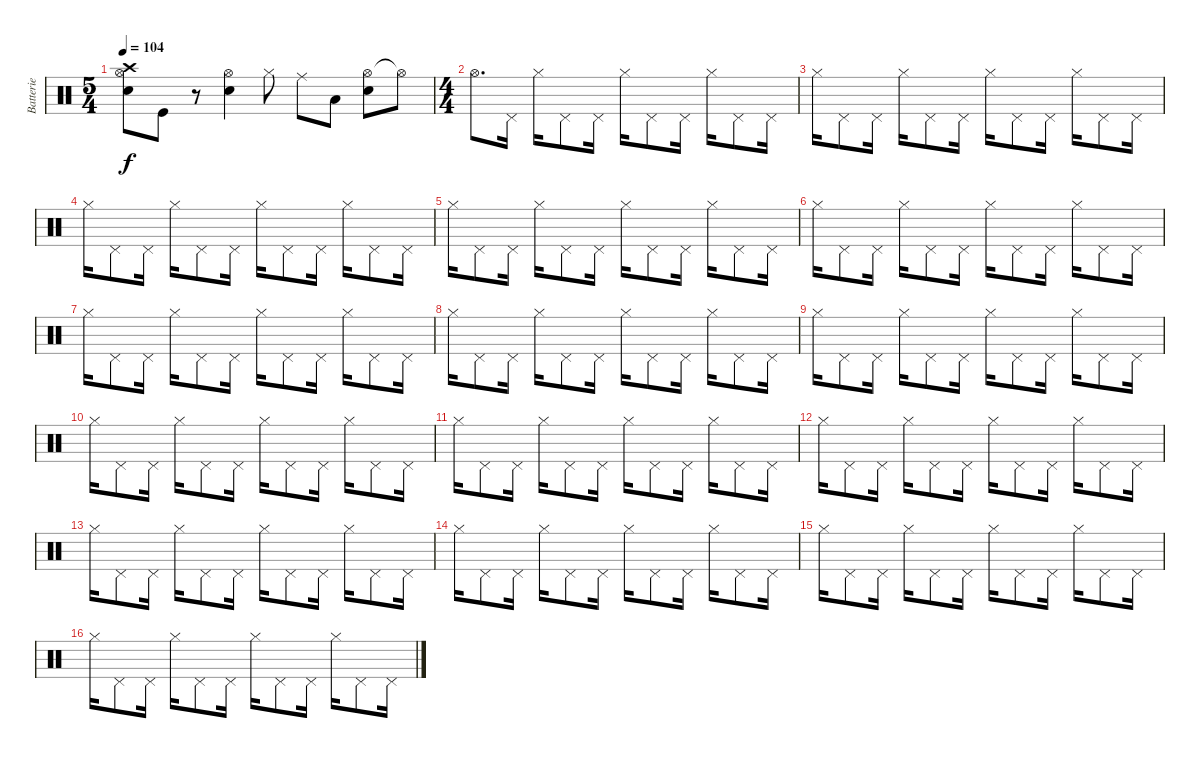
\track ("Batterie" "Batterie") {instrument percussion}
\staff {score}
\articulation defaults
\ts (5 4)
\tempo 104
\clef neutral
\ks c
("Hi-Hat (open)" "Crash high (hit)" "Electric Snare (hit)").8{dy f} "Kick (hit)".8 r.8 ("Hi-Hat (open)" "Electric Snare (hit)").4 "Hi-Hat (closed)".8 "Ride (middle)".8 "Low Tom (hit)".8 ("Hi-Hat (open)" "Electric Snare (hit)").8 "Hi-Hat (open)"{t}.8 |
\ts (4 4)
"Hi-Hat (open)".8{d} "Pedal Hi-Hat (hit)".16 "Hi-Hat (closed)".16 "Pedal Hi-Hat (hit)".8 "Pedal Hi-Hat (hit)".16 "Hi-Hat (closed)".16 "Pedal Hi-Hat (hit)".8 "Pedal Hi-Hat (hit)".16 "Hi-Hat (closed)".16 "Pedal Hi-Hat (hit)".8 "Pedal Hi-Hat (hit)".16 |
"Hi-Hat (closed)".16 "Pedal Hi-Hat (hit)".8 "Pedal Hi-Hat (hit)".16 "Hi-Hat (closed)".16 "Pedal Hi-Hat (hit)".8 "Pedal Hi-Hat (hit)".16 "Hi-Hat (closed)".16 "Pedal Hi-Hat (hit)".8 "Pedal Hi-Hat (hit)".16 "Hi-Hat (closed)".16 "Pedal Hi-Hat (hit)".8 "Pedal Hi-Hat (hit)".16 |
"Hi-Hat (closed)".16 "Pedal Hi-Hat (hit)".8 "Pedal Hi-Hat (hit)".16 "Hi-Hat (closed)".16 "Pedal Hi-Hat (hit)".8 "Pedal Hi-Hat (hit)".16 "Hi-Hat (closed)".16 "Pedal Hi-Hat (hit)".8 "Pedal Hi-Hat (hit)".16 "Hi-Hat (closed)".16 "Pedal Hi-Hat (hit)".8 "Pedal Hi-Hat (hit)".16 |
"Hi-Hat (closed)".16 "Pedal Hi-Hat (hit)".8 "Pedal Hi-Hat (hit)".16 "Hi-Hat (closed)".16 "Pedal Hi-Hat (hit)".8 "Pedal Hi-Hat (hit)".16 "Hi-Hat (closed)".16 "Pedal Hi-Hat (hit)".8 "Pedal Hi-Hat (hit)".16 "Hi-Hat (closed)".16 "Pedal Hi-Hat (hit)".8 "Pedal Hi-Hat (hit)".16 |
"Hi-Hat (closed)".16 "Pedal Hi-Hat (hit)".8 "Pedal Hi-Hat (hit)".16 "Hi-Hat (closed)".16 "Pedal Hi-Hat (hit)".8 "Pedal Hi-Hat (hit)".16 "Hi-Hat (closed)".16 "Pedal Hi-Hat (hit)".8 "Pedal Hi-Hat (hit)".16 "Hi-Hat (closed)".16 "Pedal Hi-Hat (hit)".8 "Pedal Hi-Hat (hit)".16 |
"Hi-Hat (closed)".16 "Pedal Hi-Hat (hit)".8 "Pedal Hi-Hat (hit)".16 "Hi-Hat (closed)".16 "Pedal Hi-Hat (hit)".8 "Pedal Hi-Hat (hit)".16 "Hi-Hat (closed)".16 "Pedal Hi-Hat (hit)".8 "Pedal Hi-Hat (hit)".16 "Hi-Hat (closed)".16 "Pedal Hi-Hat (hit)".8 "Pedal Hi-Hat (hit)".16 |
"Hi-Hat (closed)".16 "Pedal Hi-Hat (hit)".8 "Pedal Hi-Hat (hit)".16 "Hi-Hat (closed)".16 "Pedal Hi-Hat (hit)".8 "Pedal Hi-Hat (hit)".16 "Hi-Hat (closed)".16 "Pedal Hi-Hat (hit)".8 "Pedal Hi-Hat (hit)".16 "Hi-Hat (closed)".16 "Pedal Hi-Hat (hit)".8 "Pedal Hi-Hat (hit)".16 |
"Hi-Hat (closed)".16 "Pedal Hi-Hat (hit)".8 "Pedal Hi-Hat (hit)".16 "Hi-Hat (closed)".16 "Pedal Hi-Hat (hit)".8 "Pedal Hi-Hat (hit)".16 "Hi-Hat (closed)".16 "Pedal Hi-Hat (hit)".8 "Pedal Hi-Hat (hit)".16 "Hi-Hat (closed)".16 "Pedal Hi-Hat (hit)".8 "Pedal Hi-Hat (hit)".16 |
"Hi-Hat (closed)".16 "Pedal Hi-Hat (hit)".8 "Pedal Hi-Hat (hit)".16 "Hi-Hat (closed)".16 "Pedal Hi-Hat (hit)".8 "Pedal Hi-Hat (hit)".16 "Hi-Hat (closed)".16 "Pedal Hi-Hat (hit)".8 "Pedal Hi-Hat (hit)".16 "Hi-Hat (closed)".16 "Pedal Hi-Hat (hit)".8 "Pedal Hi-Hat (hit)".16 |
"Hi-Hat (closed)".16 "Pedal Hi-Hat (hit)".8 "Pedal Hi-Hat (hit)".16 "Hi-Hat (closed)".16 "Pedal Hi-Hat (hit)".8 "Pedal Hi-Hat (hit)".16 "Hi-Hat (closed)".16 "Pedal Hi-Hat (hit)".8 "Pedal Hi-Hat (hit)".16 "Hi-Hat (closed)".16 "Pedal Hi-Hat (hit)".8 "Pedal Hi-Hat (hit)".16 |
"Hi-Hat (closed)".16 "Pedal Hi-Hat (hit)".8 "Pedal Hi-Hat (hit)".16 "Hi-Hat (closed)".16 "Pedal Hi-Hat (hit)".8 "Pedal Hi-Hat (hit)".16 "Hi-Hat (closed)".16 "Pedal Hi-Hat (hit)".8 "Pedal Hi-Hat (hit)".16 "Hi-Hat (closed)".16 "Pedal Hi-Hat (hit)".8 "Pedal Hi-Hat (hit)".16 |
"Hi-Hat (closed)".16 "Pedal Hi-Hat (hit)".8 "Pedal Hi-Hat (hit)".16 "Hi-Hat (closed)".16 "Pedal Hi-Hat (hit)".8 "Pedal Hi-Hat (hit)".16 "Hi-Hat (closed)".16 "Pedal Hi-Hat (hit)".8 "Pedal Hi-Hat (hit)".16 "Hi-Hat (closed)".16 "Pedal Hi-Hat (hit)".8 "Pedal Hi-Hat (hit)".16 |
"Hi-Hat (closed)".16 "Pedal Hi-Hat (hit)".8 "Pedal Hi-Hat (hit)".16 "Hi-Hat (closed)".16 "Pedal Hi-Hat (hit)".8 "Pedal Hi-Hat (hit)".16 "Hi-Hat (closed)".16 "Pedal Hi-Hat (hit)".8 "Pedal Hi-Hat (hit)".16 "Hi-Hat (closed)".16 "Pedal Hi-Hat (hit)".8 "Pedal Hi-Hat (hit)".16 |
"Hi-Hat (closed)".16 "Pedal Hi-Hat (hit)".8 "Pedal Hi-Hat (hit)".16 "Hi-Hat (closed)".16 "Pedal Hi-Hat (hit)".8 "Pedal Hi-Hat (hit)".16 "Hi-Hat (closed)".16 "Pedal Hi-Hat (hit)".8 "Pedal Hi-Hat (hit)".16 "Hi-Hat (closed)".16 "Pedal Hi-Hat (hit)".8 "Pedal Hi-Hat (hit)".16 |
"Hi-Hat (closed)".16 "Pedal Hi-Hat (hit)".8 "Pedal Hi-Hat (hit)".16 "Hi-Hat (closed)".16 "Pedal Hi-Hat (hit)".8 "Pedal Hi-Hat (hit)".16 "Hi-Hat (closed)".16 "Pedal Hi-Hat (hit)".8 "Pedal Hi-Hat (hit)".16 "Hi-Hat (closed)".16 "Pedal Hi-Hat (hit)".8 "Pedal Hi-Hat (hit)".16
